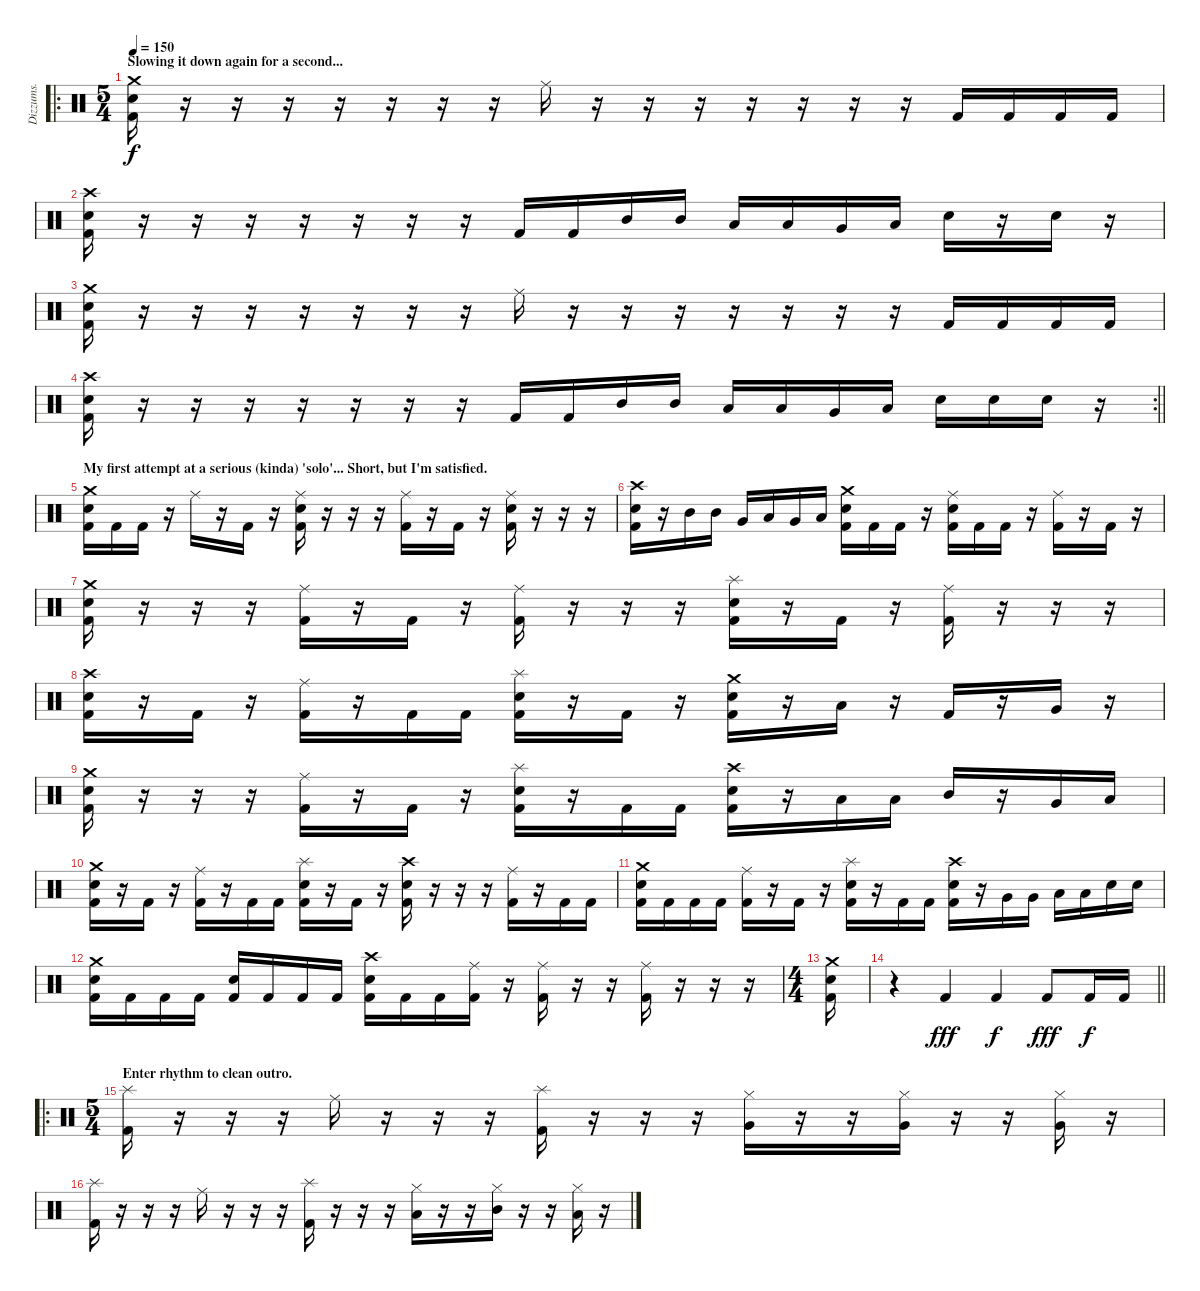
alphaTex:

\track ("Dizzums." "Dizzums.") {instrument percussion}
\staff {score}
\articulation defaults
\ro
\ts (5 4)
\section ("" "Slowing it down again for a second...")
\tempo 150
\clef neutral
\ks c
("Crash medium (hit)" "Electric Snare (hit)" "Kick (hit) 2").16{dy f} r.16 r.16 r.16 r.16 r.16 r.16 r.16 "Ride (middle)".16 r.16 r.16 r.16 r.16 r.16 r.16 r.16 "Kick (hit) 2".16 "Kick (hit) 2".16 "Kick (hit) 2".16 "Kick (hit) 2".16 |
("Crash high (hit)" "Electric Snare (hit)" "Kick (hit) 2").16 r.16 r.16 r.16 r.16 r.16 r.16 r.16 "Kick (hit) 2".16 "Kick (hit) 2".16 "Mid Tom (hit)".16 "Mid Tom (hit)".16 "Low Tom (hit)".16 "Low Tom (hit)".16 "Very Low Tom (hit)".16 "Low Floor Tom (hit)".16 "Electric Snare (hit)".16 r.16 "Electric Snare (hit)".16 r.16 |
("Crash medium (hit)" "Electric Snare (hit)" "Kick (hit) 2").16 r.16 r.16 r.16 r.16 r.16 r.16 r.16 "Ride (middle)".16 r.16 r.16 r.16 r.16 r.16 r.16 r.16 "Kick (hit) 2".16 "Kick (hit) 2".16 "Kick (hit) 2".16 "Kick (hit) 2".16 |
\rc 2
\barLineRight lightlight
("Crash high (hit)" "Electric Snare (hit)" "Kick (hit) 2").16 r.16 r.16 r.16 r.16 r.16 r.16 r.16 "Kick (hit) 2".16 "Kick (hit) 2".16 "Mid Tom (hit)".16 "Mid Tom (hit)".16 "Low Tom (hit)".16 "Low Tom (hit)".16 "Very Low Tom (hit)".16 "Low Floor Tom (hit)".16 "Electric Snare (hit)".16 "Electric Snare (hit)".16 "Electric Snare (hit)".16 r.16 |
\section ("" "My first attempt at a serious (kinda) 'solo'... Short, but I'm satisfied.")
("Crash medium (hit)" "Electric Snare (hit)" "Kick (hit) 2").16 "Kick (hit) 2".16 "Kick (hit) 2".16 r.16 "Ride (middle)".16 r.16 "Kick (hit) 2".16 r.16 ("Ride (middle)" "Electric Snare (hit)" "Kick (hit) 2").16 r.16 r.16 r.16 ("Ride (middle)" "Kick (hit) 2").16 r.16 "Kick (hit) 2".16 r.16 ("Ride (middle)" "Electric Snare (hit)" "Kick (hit) 2").16 r.16 r.16 r.16 |
("Crash high (hit)" "Electric Snare (hit)" "Kick (hit) 2").16 r.16 "Mid Tom (hit)".16 "Mid Tom (hit)".16 "Very Low Tom (hit)".16 "Low Tom (hit)".16 "Very Low Tom (hit)".16 "Low Floor Tom (hit)".16 ("Crash medium (hit)" "Electric Snare (hit)" "Kick (hit) 2").16 "Kick (hit) 2".16 "Kick (hit) 2".16 r.16 ("Ride (middle)" "Electric Snare (hit)" "Kick (hit) 2").16 "Kick (hit) 2".16 "Kick (hit) 2".16 r.16 ("Ride (middle)" "Kick (hit) 2").16 r.16 "Kick (hit) 2".16 r.16 |
("Crash medium (hit)" "Electric Snare (hit)" "Kick (hit) 2").16 r.16 r.16 r.16 ("Ride (middle)" "Kick (hit) 2").16 r.16 "Kick (hit) 2".16 r.16 ("Ride (middle)" "Kick (hit) 2").16 r.16 r.16 r.16 ("Splash (hit)" "Electric Snare (hit)" "Kick (hit) 2").16 r.16 "Kick (hit) 2".16 r.16 ("Ride (middle)" "Kick (hit) 2").16 r.16 r.16 r.16 |
("Crash high (hit)" "Electric Snare (hit)" "Kick (hit) 2").16 r.16 "Kick (hit) 2".16 r.16 ("Ride (middle)" "Kick (hit) 2").16 r.16 "Kick (hit) 2".16 "Kick (hit) 2".16 ("Splash (hit)" "Electric Snare (hit)" "Kick (hit) 2").16 r.16 "Kick (hit) 2".16 r.16 ("Crash medium (hit)" "Electric Snare (hit)" "Kick (hit) 2").16 r.16 "Low Tom (hit)".16 r.16 "Kick (hit) 2".16 r.16 "Very Low Tom (hit)".16 r.16 |
("Crash medium (hit)" "Electric Snare (hit)" "Kick (hit) 2").16 r.16 r.16 r.16 ("Ride (middle)" "Kick (hit) 2").16 r.16 "Kick (hit) 2".16 r.16 ("Splash (hit)" "Electric Snare (hit)" "Kick (hit) 2").16 r.16 "Kick (hit) 2".16 "Kick (hit) 2".16 ("Crash high (hit)" "Electric Snare (hit)" "Kick (hit) 2").16 r.16 "Low Tom (hit)".16 "Low Tom (hit)".16 "Mid Tom (hit)".16 r.16 "Very Low Tom (hit)".16 "Low Floor Tom (hit)".16 |
("Crash medium (hit)" "Electric Snare (hit)" "Kick (hit) 2").16 r.16 "Kick (hit) 2".16 r.16 ("Ride (middle)" "Kick (hit) 2").16 r.16 "Kick (hit) 2".16 "Kick (hit) 2".16 ("Splash (hit)" "Electric Snare (hit)" "Kick (hit) 2").16 r.16 "Kick (hit) 2".16 r.16 ("Crash high (hit)" "Electric Snare (hit)" "Kick (hit) 2").16 r.16 r.16 r.16 ("Ride (middle)" "Kick (hit) 2").16 r.16 "Kick (hit) 2".16 "Kick (hit) 2".16 |
("Crash medium (hit)" "Electric Snare (hit)" "Kick (hit) 2").16 "Kick (hit) 2".16 "Kick (hit) 2".16 "Kick (hit) 2".16 ("Ride (middle)" "Kick (hit) 2").16 r.16 "Kick (hit) 2".16 r.16 ("Splash (hit)" "Electric Snare (hit)" "Kick (hit) 2").16 r.16 "Kick (hit) 2".16 "Kick (hit) 2".16 ("Crash high (hit)" "Electric Snare (hit)" "Kick (hit) 2").16 r.16 "Very Low Tom (hit)".16 "Very Low Tom (hit)".16 "Low Floor Tom (hit)".16 "Low Floor Tom (hit)".16 "Electric Snare (hit)".16 "Electric Snare (hit)".16 |
("Crash medium (hit)" "Electric Snare (hit)" "Kick (hit) 2").16 "Kick (hit) 2".16 "Kick (hit) 2".16 "Kick (hit) 2".16 ("Electric Snare (hit)" "Kick (hit) 2").16 "Kick (hit) 2".16 "Kick (hit) 2".16 "Kick (hit) 2".16 ("Crash high (hit)" "Electric Snare (hit)" "Kick (hit) 2").16 "Kick (hit) 2".16 "Kick (hit) 2".16 ("Ride (middle)" "Kick (hit) 2").16 r.16 ("Ride (middle)" "Kick (hit) 2").16 r.16 r.16 ("Ride (middle)" "Kick (hit) 2").16 r.16 r.16 r.16 |
\ts (4 4)
("Crash medium (hit)" "Electric Snare (hit)" "Kick (hit) 2").16 |
\barLineRight lightlight
r.4 "Kick (hit) 2".4{dy fff} "Kick (hit) 2".4{dy f} "Kick (hit) 2".8{dy fff} "Kick (hit) 2".16{dy f} "Kick (hit) 2".16 |
\ro
\ts (5 4)
\section ("" "Enter rhythm to clean outro.")
("Splash (hit)" "Kick (hit) 2").16 r.16 r.16 r.16 "Ride (middle)".16 r.16 r.16 r.16 ("Splash (hit)" "Kick (hit) 2").16 r.16 r.16 r.16 ("Hi-Hat (closed)" "Very Low Tom (hit)").16 r.16 r.16 ("Hi-Hat (closed)" "Very Low Tom (hit)").16 r.16 r.16 ("Hi-Hat (closed)" "Very Low Tom (hit)").16 r.16 |
("Splash (hit)" "Kick (hit) 2").16 r.16 r.16 r.16 "Ride (middle)".16 r.16 r.16 r.16 ("Splash (hit)" "Kick (hit) 2").16 r.16 r.16 r.16 ("Hi-Hat (closed)" "Low Tom (hit)").16 r.16 r.16 ("Hi-Hat (closed)" "Mid Tom (hit)").16 r.16 r.16 ("Hi-Hat (closed)" "Low Tom (hit)").16 r.16
